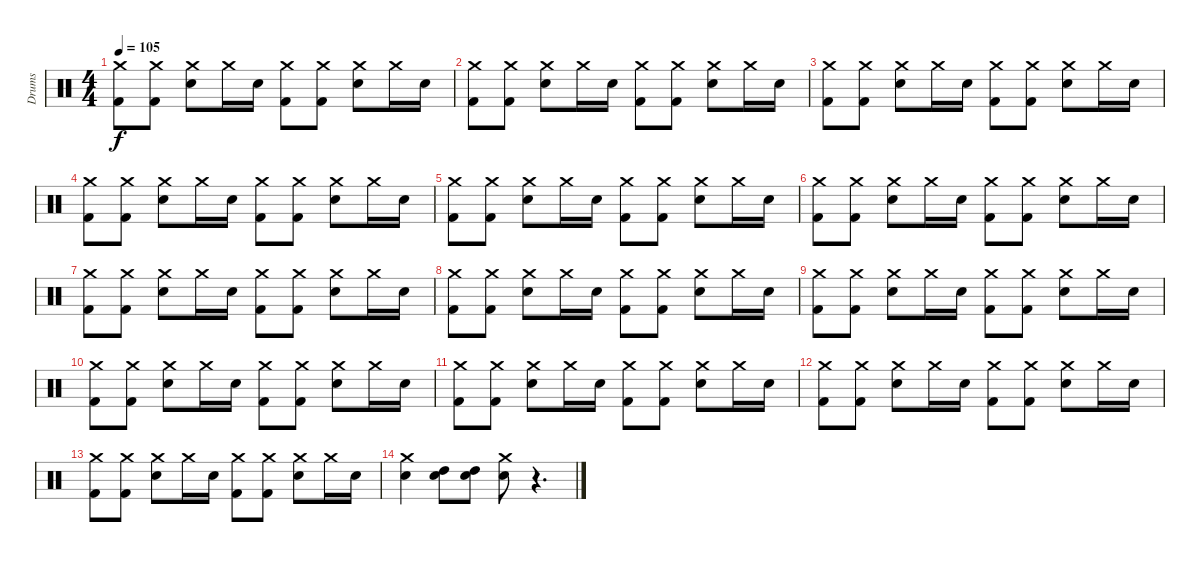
\track ("Drums" "Drums") {instrument percussion}
\staff {score}
\articulation defaults
\ts (4 4)
\tempo 105
\clef neutral
\ks c
("Kick (hit) 2" "Crash medium (hit)").8{dy f} ("Crash medium (hit)" "Kick (hit) 2").8 ("Crash medium (hit)" "Snare (hit) 2").8 "Crash medium (hit)".16 "Snare (hit) 2".16 ("Crash medium (hit)" "Kick (hit) 2").8 ("Crash medium (hit)" "Kick (hit) 2").8 ("Crash medium (hit)" "Snare (hit) 2").8 "Crash medium (hit)".16 "Snare (hit) 2".16 |
("Kick (hit) 2" "Crash medium (hit)").8 ("Crash medium (hit)" "Kick (hit) 2").8 ("Crash medium (hit)" "Snare (hit) 2").8 "Crash medium (hit)".16 "Snare (hit) 2".16 ("Crash medium (hit)" "Kick (hit) 2").8 ("Crash medium (hit)" "Kick (hit) 2").8 ("Crash medium (hit)" "Snare (hit) 2").8 "Crash medium (hit)".16 "Snare (hit) 2".16 |
("Kick (hit) 2" "Crash medium (hit)").8 ("Crash medium (hit)" "Kick (hit) 2").8 ("Crash medium (hit)" "Snare (hit) 2").8 "Crash medium (hit)".16 "Snare (hit) 2".16 ("Crash medium (hit)" "Kick (hit) 2").8 ("Crash medium (hit)" "Kick (hit) 2").8 ("Crash medium (hit)" "Snare (hit) 2").8 "Crash medium (hit)".16 "Snare (hit) 2".16 |
("Kick (hit) 2" "Crash medium (hit)").8 ("Crash medium (hit)" "Kick (hit) 2").8 ("Crash medium (hit)" "Snare (hit) 2").8 "Crash medium (hit)".16 "Snare (hit) 2".16 ("Crash medium (hit)" "Kick (hit) 2").8 ("Crash medium (hit)" "Kick (hit) 2").8 ("Crash medium (hit)" "Snare (hit) 2").8 "Crash medium (hit)".16 "Snare (hit) 2".16 |
("Kick (hit) 2" "Crash medium (hit)").8 ("Crash medium (hit)" "Kick (hit) 2").8 ("Crash medium (hit)" "Snare (hit) 2").8 "Crash medium (hit)".16 "Snare (hit) 2".16 ("Crash medium (hit)" "Kick (hit) 2").8 ("Crash medium (hit)" "Kick (hit) 2").8 ("Crash medium (hit)" "Snare (hit) 2").8 "Crash medium (hit)".16 "Snare (hit) 2".16 |
("Kick (hit) 2" "Crash medium (hit)").8 ("Crash medium (hit)" "Kick (hit) 2").8 ("Crash medium (hit)" "Snare (hit) 2").8 "Crash medium (hit)".16 "Snare (hit) 2".16 ("Crash medium (hit)" "Kick (hit) 2").8 ("Crash medium (hit)" "Kick (hit) 2").8 ("Crash medium (hit)" "Snare (hit) 2").8 "Crash medium (hit)".16 "Snare (hit) 2".16 |
("Kick (hit) 2" "Crash medium (hit)").8 ("Crash medium (hit)" "Kick (hit) 2").8 ("Crash medium (hit)" "Snare (hit) 2").8 "Crash medium (hit)".16 "Snare (hit) 2".16 ("Crash medium (hit)" "Kick (hit) 2").8 ("Crash medium (hit)" "Kick (hit) 2").8 ("Crash medium (hit)" "Snare (hit) 2").8 "Crash medium (hit)".16 "Snare (hit) 2".16 |
("Kick (hit) 2" "Crash medium (hit)").8 ("Crash medium (hit)" "Kick (hit) 2").8 ("Crash medium (hit)" "Snare (hit) 2").8 "Crash medium (hit)".16 "Snare (hit) 2".16 ("Crash medium (hit)" "Kick (hit) 2").8 ("Crash medium (hit)" "Kick (hit) 2").8 ("Crash medium (hit)" "Snare (hit) 2").8 "Crash medium (hit)".16 "Snare (hit) 2".16 |
("Kick (hit) 2" "Crash medium (hit)").8 ("Crash medium (hit)" "Kick (hit) 2").8 ("Crash medium (hit)" "Snare (hit) 2").8 "Crash medium (hit)".16 "Snare (hit) 2".16 ("Crash medium (hit)" "Kick (hit) 2").8 ("Crash medium (hit)" "Kick (hit) 2").8 ("Crash medium (hit)" "Snare (hit) 2").8 "Crash medium (hit)".16 "Snare (hit) 2".16 |
("Kick (hit) 2" "Crash medium (hit)").8 ("Crash medium (hit)" "Kick (hit) 2").8 ("Crash medium (hit)" "Snare (hit) 2").8 "Crash medium (hit)".16 "Snare (hit) 2".16 ("Crash medium (hit)" "Kick (hit) 2").8 ("Crash medium (hit)" "Kick (hit) 2").8 ("Crash medium (hit)" "Snare (hit) 2").8 "Crash medium (hit)".16 "Snare (hit) 2".16 |
("Kick (hit) 2" "Crash medium (hit)").8 ("Crash medium (hit)" "Kick (hit) 2").8 ("Crash medium (hit)" "Snare (hit) 2").8 "Crash medium (hit)".16 "Snare (hit) 2".16 ("Crash medium (hit)" "Kick (hit) 2").8 ("Crash medium (hit)" "Kick (hit) 2").8 ("Crash medium (hit)" "Snare (hit) 2").8 "Crash medium (hit)".16 "Snare (hit) 2".16 |
("Kick (hit) 2" "Crash medium (hit)").8 ("Crash medium (hit)" "Kick (hit) 2").8 ("Crash medium (hit)" "Snare (hit) 2").8 "Crash medium (hit)".16 "Snare (hit) 2".16 ("Crash medium (hit)" "Kick (hit) 2").8 ("Crash medium (hit)" "Kick (hit) 2").8 ("Crash medium (hit)" "Snare (hit) 2").8 "Crash medium (hit)".16 "Snare (hit) 2".16 |
("Kick (hit) 2" "Crash medium (hit)").8 ("Crash medium (hit)" "Kick (hit) 2").8 ("Crash medium (hit)" "Snare (hit) 2").8 "Crash medium (hit)".16 "Snare (hit) 2".16 ("Crash medium (hit)" "Kick (hit) 2").8 ("Crash medium (hit)" "Kick (hit) 2").8 ("Crash medium (hit)" "Snare (hit) 2").8 "Crash medium (hit)".16 "Snare (hit) 2".16 |
("Crash medium (hit)" "Snare (hit) 2").4 ("High Tom (hit)" "Snare (hit) 2").8 ("High Tom (hit)" "Snare (hit) 2").8 ("Crash medium (hit)" "Snare (hit) 2").8 r.4{d}
